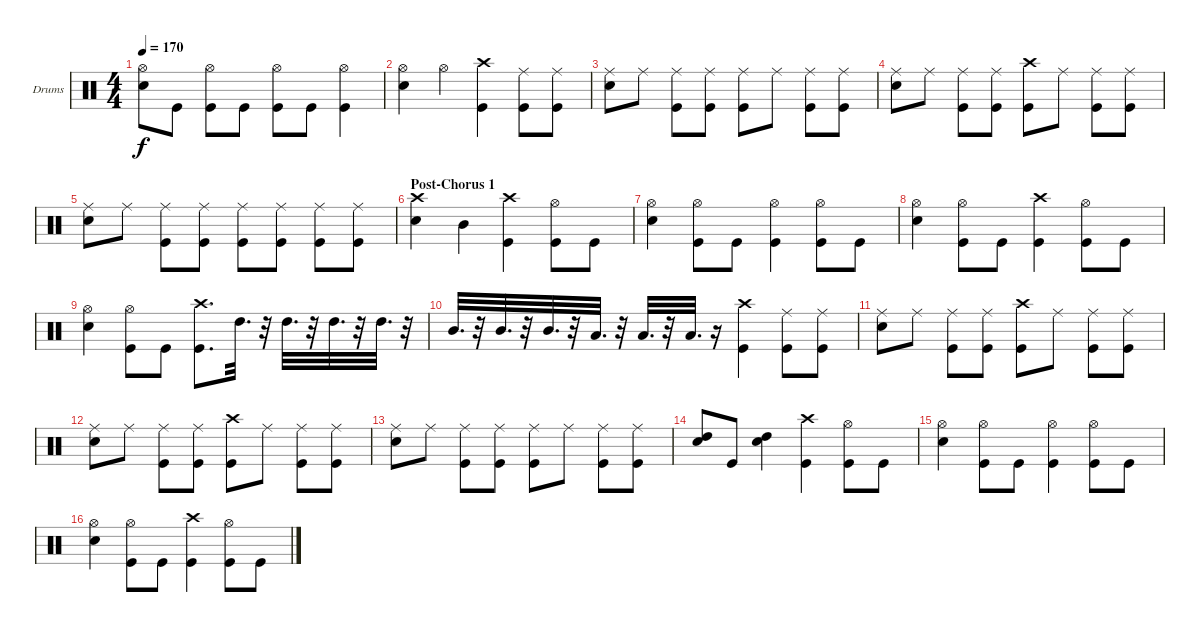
\defaultSystemsLayout 4
\bracketExtendMode groupsimilarinstruments
\firstSystemTrackNameOrientation horizontal
\otherSystemsTrackNameOrientation horizontal
\track ("Jimmy \"The Hammer\" - Drums" "Drums") {instrument percussion}
\staff {score}
\articulation defaults
\ts (4 4)
\tempo 170
\clef neutral
\ks c
("Snare (hit) 2" "Hi-Hat (open)").8{dy f} "Kick (hit)".8 ("Kick (hit)" "Hi-Hat (open)").8 "Kick (hit)".8 ("Kick (hit)" "Hi-Hat (open)").8 "Kick (hit)".8 ("Kick (hit)" "Hi-Hat (open)").4 |
("Snare (hit) 2" "Hi-Hat (open)").4 "Hi-Hat (open)".4 ("Kick (hit)" "Crash high (hit)").4 ("Kick (hit)" "Ride (middle)").8 ("Kick (hit)" "Ride (middle)").8 |
("Snare (hit) 2" "Ride (middle)").8 "Ride (middle)".8 ("Kick (hit)" "Ride (middle)").8 ("Kick (hit)" "Ride (middle)").8 ("Kick (hit)" "Ride (middle)").8 "Ride (middle)".8 ("Kick (hit)" "Ride (middle)").8 ("Kick (hit)" "Ride (middle)").8 |
("Snare (hit) 2" "Ride (middle)").8 "Ride (middle)".8 ("Ride (middle)" "Kick (hit)").8 ("Kick (hit)" "Ride (middle)").8 ("Kick (hit)" "Crash high (hit)").8 "Ride (middle)".8 ("Kick (hit)" "Ride (middle)").8 ("Kick (hit)" "Ride (middle)").8 |
("Snare (hit) 2" "Ride (middle)").8 "Ride (middle)".8 ("Ride (middle)" "Kick (hit)").8 ("Kick (hit)" "Ride (middle)").8 ("Kick (hit)" "Ride (middle)").8 ("Kick (hit)" "Ride (middle)").8 ("Kick (hit)" "Ride (middle)").8 ("Kick (hit)" "Ride (middle)").8 |
\section ("" "Post-Chorus 1")
("Snare (hit) 2" "Crash high (hit)").4 "Mid Tom (hit)".4 ("Kick (hit)" "Crash high (hit)").4 ("Kick (hit)" "Hi-Hat (open)").8 "Kick (hit)".8 |
("Snare (hit) 2" "Hi-Hat (open)").4 ("Kick (hit)" "Hi-Hat (open)").8 "Kick (hit)".8 ("Kick (hit)" "Hi-Hat (open)").4 ("Kick (hit)" "Hi-Hat (open)").8 "Kick (hit)".8 |
("Snare (hit) 2" "Hi-Hat (open)").4 ("Kick (hit)" "Hi-Hat (open)").8 "Kick (hit)".8 ("Kick (hit)" "Crash high (hit)").4 ("Kick (hit)" "Hi-Hat (open)").8 "Kick (hit)".8 |
("Snare (hit) 2" "Hi-Hat (open)").4 ("Kick (hit)" "Hi-Hat (open)").8 "Kick (hit)".8 ("Kick (hit)" "Crash high (hit)").8{d} "High Tom (hit)".32{d} r.32 "High Tom (hit)".32{d} r.32 "High Tom (hit)".32{d} r.32 "High Tom (hit)".32{d} r.32 |
"Mid Tom (hit)".32{d} r.32 "Mid Tom (hit)".32{d} r.32 "Mid Tom (hit)".32{d} r.32 "Low Tom (hit)".32{d} r.32 "Low Tom (hit)".32{d} r.32 "Low Tom (hit)".32{d} r.16 ("Kick (hit)" "Crash high (hit)").4 ("Kick (hit)" "Ride (middle)").8 ("Kick (hit)" "Ride (middle)").8 |
("Snare (hit) 2" "Ride (middle)").8 "Ride (middle)".8 ("Kick (hit)" "Ride (middle)").8 ("Kick (hit)" "Ride (middle)").8 ("Kick (hit)" "Crash high (hit)").8 "Ride (middle)".8 ("Kick (hit)" "Ride (middle)").8 ("Kick (hit)" "Ride (middle)").8 |
("Snare (hit) 2" "Ride (middle)").8 "Ride (middle)".8 ("Ride (middle)" "Kick (hit)").8 ("Kick (hit)" "Ride (middle)").8 ("Kick (hit)" "Crash high (hit)").8 "Ride (middle)".8 ("Kick (hit)" "Ride (middle)").8 ("Kick (hit)" "Ride (middle)").8 |
("Snare (hit) 2" "Ride (middle)").8 "Ride (middle)".8 ("Ride (middle)" "Kick (hit)").8 ("Kick (hit)" "Ride (middle)").8 ("Kick (hit)" "Ride (middle)").8 "Ride (middle)".8 ("Kick (hit)" "Ride (middle)").8 ("Kick (hit)" "Ride (middle)").8 |
("Snare (hit) 2" "High Tom (hit)").8 "Kick (hit)".8 ("High Tom (hit)" "Snare (hit) 2").4 ("Kick (hit)" "Crash high (hit)").4 ("Kick (hit)" "Hi-Hat (open)").8 "Kick (hit)".8 |
("Snare (hit) 2" "Hi-Hat (open)").4 ("Kick (hit)" "Hi-Hat (open)").8 "Kick (hit)".8 ("Kick (hit)" "Hi-Hat (open)").4 ("Kick (hit)" "Hi-Hat (open)").8 "Kick (hit)".8 |
("Snare (hit) 2" "Hi-Hat (open)").4 ("Kick (hit)" "Hi-Hat (open)").8 "Kick (hit)".8 ("Kick (hit)" "Crash high (hit)").4 ("Kick (hit)" "Hi-Hat (open)").8 "Kick (hit)".8
